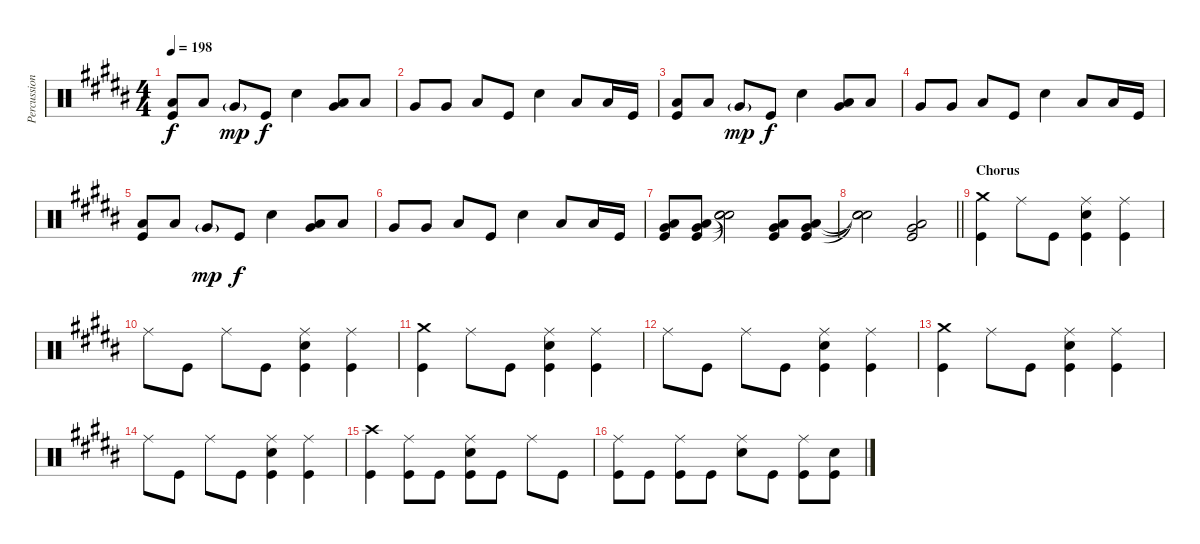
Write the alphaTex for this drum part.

\track ("Percussion" "Percussion") {instrument percussion}
\staff {score}
\articulation defaults
\ts (4 4)
\tempo 198
\clef neutral
\ks b
("Low Tom (hit)" "Kick (hit)").8{dy f} "Low Tom (hit)".8 "Very Low Tom (hit)"{g}.8{dy mp} "Kick (hit)".8{dy f} "Electric Snare (hit)".4 ("Very Low Tom (hit)" "Low Floor Tom (hit)").8 "Low Tom (hit)".8 |
"Very Low Tom (hit)".8 "Very Low Tom (hit)".8 "Low Floor Tom (hit)".8 "Kick (hit)".8 "Electric Snare (hit)".4 "Low Tom (hit)".8 "Low Floor Tom (hit)".16 "Kick (hit)".16 |
("Low Tom (hit)" "Kick (hit)").8 "Low Tom (hit)".8 "Very Low Tom (hit)"{g}.8{dy mp} "Kick (hit)".8{dy f} "Electric Snare (hit)".4 ("Very Low Tom (hit)" "Low Floor Tom (hit)").8 "Low Tom (hit)".8 |
"Very Low Tom (hit)".8 "Very Low Tom (hit)".8 "Low Floor Tom (hit)".8 "Kick (hit)".8 "Electric Snare (hit)".4 "Low Tom (hit)".8 "Low Floor Tom (hit)".16 "Kick (hit)".16 |
("Low Tom (hit)" "Kick (hit)").8 "Low Tom (hit)".8 "Very Low Tom (hit)"{g}.8{dy mp} "Kick (hit)".8{dy f} "Electric Snare (hit)".4 ("Very Low Tom (hit)" "Low Floor Tom (hit)").8 "Low Tom (hit)".8 |
"Very Low Tom (hit)".8 "Very Low Tom (hit)".8 "Low Floor Tom (hit)".8 "Kick (hit)".8 "Electric Snare (hit)".4 "Low Tom (hit)".8 "Low Floor Tom (hit)".16 "Kick (hit)".16 |
("Very Low Tom (hit)" "Low Floor Tom (hit)" "Kick (hit)").8 ("Very Low Tom (hit)" "Low Floor Tom (hit)" "Kick (hit)").8 ("Snare (hit)"{t} "Snare (hit)"{t} "Snare (hit)"{t}).2 ("Very Low Tom (hit)" "Low Floor Tom (hit)" "Kick (hit)").8 ("Very Low Tom (hit)" "Low Floor Tom (hit)" "Kick (hit)").8 |
\barLineRight lightlight
("Snare (hit)"{t} "Snare (hit)"{t} "Snare (hit)"{t}).2 ("Very Low Tom (hit)" "Low Floor Tom (hit)" "Kick (hit)").2 |
\section ("" "Chorus")
("Crash medium (hit)" "Kick (hit)").4 "Ride (middle)".8 "Kick (hit)".8 ("Ride (middle)" "Electric Snare (hit)" "Kick (hit)").4 ("Ride (middle)" "Kick (hit)").4 |
"Ride (middle)".8 "Kick (hit)".8 "Ride (middle)".8 "Kick (hit)".8 ("Ride (middle)" "Electric Snare (hit)" "Kick (hit)").4 ("Ride (middle)" "Kick (hit)").4 |
("Crash medium (hit)" "Kick (hit)").4 "Ride (middle)".8 "Kick (hit)".8 ("Ride (middle)" "Electric Snare (hit)" "Kick (hit)").4 ("Ride (middle)" "Kick (hit)").4 |
"Ride (middle)".8 "Kick (hit)".8 "Ride (middle)".8 "Kick (hit)".8 ("Ride (middle)" "Electric Snare (hit)" "Kick (hit)").4 ("Ride (middle)" "Kick (hit)").4 |
("Crash medium (hit)" "Kick (hit)").4 "Ride (middle)".8 "Kick (hit)".8 ("Ride (middle)" "Electric Snare (hit)" "Kick (hit)").4 ("Ride (middle)" "Kick (hit)").4 |
"Ride (middle)".8 "Kick (hit)".8 "Ride (middle)".8 "Kick (hit)".8 ("Ride (middle)" "Electric Snare (hit)" "Kick (hit)").4 ("Ride (middle)" "Kick (hit)").4 |
("Crash high (hit)" "Kick (hit)").4 ("Ride (middle)" "Kick (hit)").8 "Kick (hit)".8 ("Ride (middle)" "Electric Snare (hit)" "Kick (hit)").8 "Kick (hit)".8 "Ride (middle)".8 "Kick (hit)".8 |
("Ride (middle)" "Kick (hit)").8 "Kick (hit)".8 ("Ride (middle)" "Kick (hit)").8 "Kick (hit)".8 ("Ride (middle)" "Electric Snare (hit)").8 "Kick (hit)".8 ("Ride (middle)" "Kick (hit)").8 ("Electric Snare (hit)" "Kick (hit)").8
